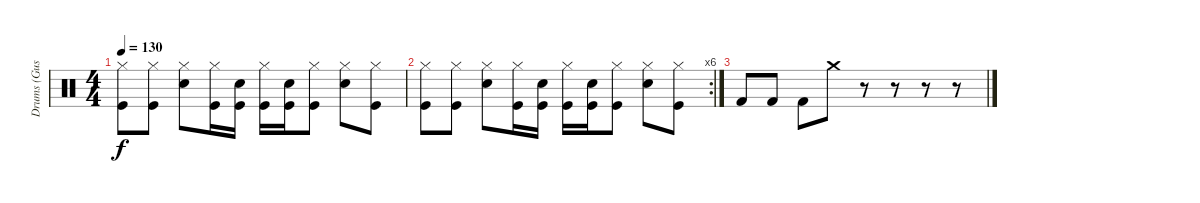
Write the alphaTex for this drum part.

\track ("Drums (Gustav) " "Drums (Gus") {instrument percussion}
\staff {score}
\articulation defaults
\ts (4 4)
\tempo 130
\clef neutral
\ks c
("Kick (hit)" "Hi-Hat (closed)").8{dy f} ("Kick (hit)" "Hi-Hat (closed)").8 ("Snare (hit) 2" "Hi-Hat (closed)").8 ("Kick (hit)" "Hi-Hat (closed)").16 ("Snare (hit) 2" "Kick (hit)").16 ("Kick (hit)" "Hi-Hat (closed)").16 ("Snare (hit) 2" "Kick (hit)").16 ("Kick (hit)" "Hi-Hat (closed)").8 ("Snare (hit) 2" "Hi-Hat (closed)").8 ("Kick (hit)" "Hi-Hat (closed)").8 |
\rc 6
("Kick (hit)" "Hi-Hat (closed)").8 ("Kick (hit)" "Hi-Hat (closed)").8 ("Snare (hit) 2" "Hi-Hat (closed)").8 ("Kick (hit)" "Hi-Hat (closed)").16 ("Snare (hit) 2" "Kick (hit)").16 ("Kick (hit)" "Hi-Hat (closed)").16 ("Snare (hit) 2" "Kick (hit)").16 ("Kick (hit)" "Hi-Hat (closed)").8 ("Snare (hit) 2" "Hi-Hat (closed)").8 ("Kick (hit)" "Hi-Hat (closed)").8 |
"Kick (hit) 2".8 "Kick (hit) 2".8 "Kick (hit) 2".8 "Crash medium (hit)".8 r.8 r.8 r.8 r.8
